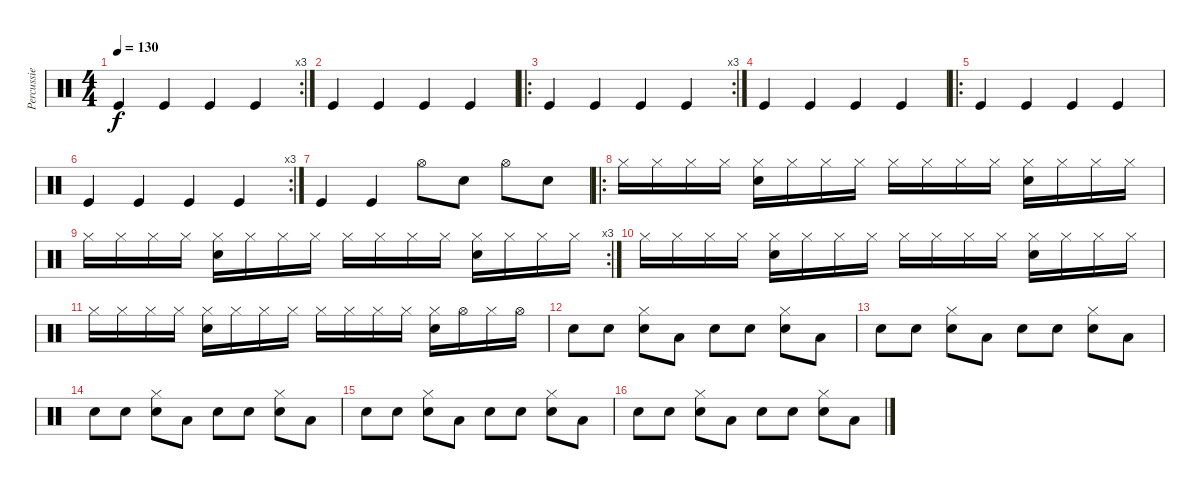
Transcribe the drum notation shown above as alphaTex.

\track ("Percussie" "Percussie") {instrument percussion}
\staff {score}
\articulation defaults
\rc 3
\ts (4 4)
\tempo 130
\clef neutral
\ks c "Kick (hit)".4{dy f} "Kick (hit)".4 "Kick (hit)".4 "Kick (hit)".4
|
"Kick (hit)".4 "Kick (hit)".4 "Kick (hit)".4 "Kick (hit)".4 |
\ro
\rc 3 "Kick (hit)".4 "Kick (hit)".4 "Kick (hit)".4 "Kick (hit)".4
|
"Kick (hit)".4 "Kick (hit)".4 "Kick (hit)".4 "Kick (hit)".4 |
\ro "Kick (hit)".4 "Kick (hit)".4 "Kick (hit)".4 "Kick (hit)".4
|
\rc 3 "Kick (hit)".4 "Kick (hit)".4 "Kick (hit)".4 "Kick (hit)".4
|
"Kick (hit)".4 "Kick (hit)".4 "Hi-Hat (open)".8 "Electric Snare (hit)".8 "Hi-Hat (open)".8 "Electric Snare (hit)".8 |
\ro "Hi-Hat (closed)".16 "Hi-Hat (closed)".16 "Hi-Hat (closed)".16 "Hi-Hat (closed)".16
("Hi-Hat (closed)" "Electric Snare (hit)").16 "Hi-Hat (closed)".16 "Hi-Hat (closed)".16 "Hi-Hat (closed)".16 "Hi-Hat (closed)".16 "Hi-Hat (closed)".16 "Hi-Hat (closed)".16 "Hi-Hat (closed)".16 ("Hi-Hat (closed)" "Electric Snare (hit)").16 "Hi-Hat (closed)".16 "Hi-Hat (closed)".16 "Hi-Hat (closed)".16 |
\rc 3 "Hi-Hat (closed)".16 "Hi-Hat (closed)".16 "Hi-Hat (closed)".16 "Hi-Hat (closed)".16
("Hi-Hat (closed)" "Electric Snare (hit)").16 "Hi-Hat (closed)".16 "Hi-Hat (closed)".16 "Hi-Hat (closed)".16 "Hi-Hat (closed)".16 "Hi-Hat (closed)".16 "Hi-Hat (closed)".16 "Hi-Hat (closed)".16 ("Hi-Hat (closed)" "Electric Snare (hit)").16 "Hi-Hat (closed)".16 "Hi-Hat (closed)".16 "Hi-Hat (closed)".16 |
"Hi-Hat (closed)".16 "Hi-Hat (closed)".16 "Hi-Hat (closed)".16 "Hi-Hat (closed)".16 ("Hi-Hat (closed)" "Electric Snare (hit)").16 "Hi-Hat (closed)".16 "Hi-Hat (closed)".16 "Hi-Hat (closed)".16 "Hi-Hat (closed)".16 "Hi-Hat (closed)".16 "Hi-Hat (closed)".16 "Hi-Hat (closed)".16 ("Hi-Hat (closed)" "Electric Snare (hit)").16 "Hi-Hat (closed)".16 "Hi-Hat (closed)".16 "Hi-Hat (closed)".16 |
"Hi-Hat (closed)".16 "Hi-Hat (closed)".16 "Hi-Hat (closed)".16 "Hi-Hat (closed)".16 ("Hi-Hat (closed)" "Electric Snare (hit)").16 "Hi-Hat (closed)".16 "Hi-Hat (closed)".16 "Hi-Hat (closed)".16 "Hi-Hat (closed)".16 "Hi-Hat (closed)".16 "Hi-Hat (closed)".16 "Hi-Hat (closed)".16 ("Hi-Hat (closed)" "Electric Snare (hit)").16 "Hi-Hat (open)".16 "Hi-Hat (closed)".16 "Hi-Hat (open)".16 |
"Electric Snare (hit)".8 "Electric Snare (hit)".8 ("Hi-Hat (closed)" "Electric Snare (hit)").8 "Low Floor Tom (hit)".8 "Electric Snare (hit)".8 "Electric Snare (hit)".8 ("Hi-Hat (closed)" "Electric Snare (hit)").8 "Low Floor Tom (hit)".8 |
"Electric Snare (hit)".8 "Electric Snare (hit)".8 ("Hi-Hat (closed)" "Electric Snare (hit)").8 "Low Floor Tom (hit)".8 "Electric Snare (hit)".8 "Electric Snare (hit)".8 ("Hi-Hat (closed)" "Electric Snare (hit)").8 "Low Floor Tom (hit)".8 |
"Electric Snare (hit)".8 "Electric Snare (hit)".8 ("Hi-Hat (closed)" "Electric Snare (hit)").8 "Low Floor Tom (hit)".8 "Electric Snare (hit)".8 "Electric Snare (hit)".8 ("Hi-Hat (closed)" "Electric Snare (hit)").8 "Low Floor Tom (hit)".8 |
"Electric Snare (hit)".8 "Electric Snare (hit)".8 ("Hi-Hat (closed)" "Electric Snare (hit)").8 "Low Floor Tom (hit)".8 "Electric Snare (hit)".8 "Electric Snare (hit)".8 ("Hi-Hat (closed)" "Electric Snare (hit)").8 "Low Floor Tom (hit)".8 |
"Electric Snare (hit)".8 "Electric Snare (hit)".8 ("Hi-Hat (closed)" "Electric Snare (hit)").8 "Low Floor Tom (hit)".8 "Electric Snare (hit)".8 "Electric Snare (hit)".8 ("Hi-Hat (closed)" "Electric Snare (hit)").8 "Low Floor Tom (hit)".8
